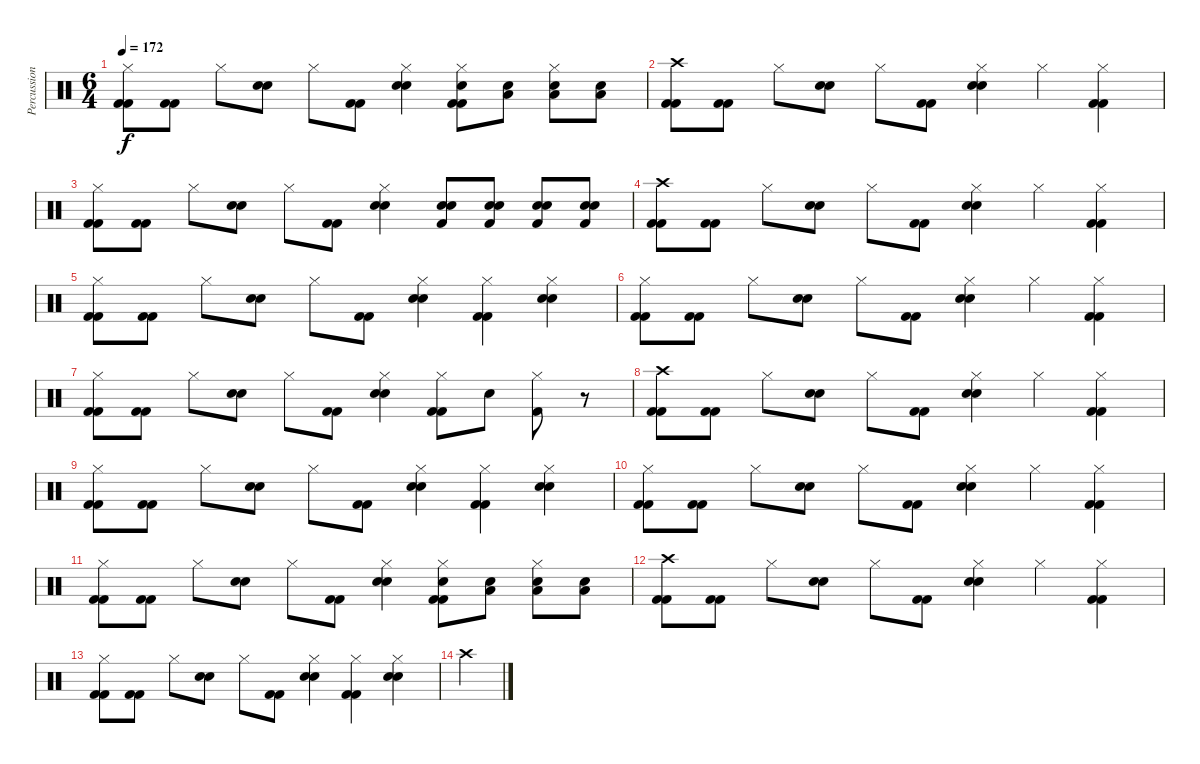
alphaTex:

\track ("Percussion" "Percussion") {instrument percussion}
\staff {score}
\articulation defaults
\ts (6 4)
\tempo 172
\clef neutral
\ks c
("Hi-Hat (closed)" "Kick (hit) 2" "Kick (hit) 2").8{dy f} ("Kick (hit) 2" "Kick (hit) 2").8 "Hi-Hat (closed)".8 ("Electric Snare (hit)" "Electric Snare (hit)").8 "Hi-Hat (closed)".8 ("Kick (hit) 2" "Kick (hit) 2").8 ("Hi-Hat (closed)" "Electric Snare (hit)" "Electric Snare (hit)").4 ("Hi-Hat (closed)" "Electric Snare (hit)" "Kick (hit) 2" "Kick (hit) 2").8 ("Electric Snare (hit)" "Low Tom (hit)").8 ("Hi-Hat (closed)" "Electric Snare (hit)" "Low Tom (hit)").8 ("Electric Snare (hit)" "Low Tom (hit)").8 |
("Crash high (hit)" "Kick (hit) 2" "Kick (hit) 2").8{volume 16} ("Kick (hit) 2" "Kick (hit) 2").8 "Hi-Hat (closed)".8 ("Electric Snare (hit)" "Electric Snare (hit)").8 "Hi-Hat (closed)".8 ("Kick (hit) 2" "Kick (hit) 2").8 ("Hi-Hat (closed)" "Electric Snare (hit)" "Electric Snare (hit)").4 "Hi-Hat (closed)".4 ("Hi-Hat (closed)" "Kick (hit) 2" "Kick (hit) 2").4 |
("Hi-Hat (closed)" "Kick (hit) 2" "Kick (hit) 2").8 ("Kick (hit) 2" "Kick (hit) 2").8 "Hi-Hat (closed)".8 ("Electric Snare (hit)" "Electric Snare (hit)").8 "Hi-Hat (closed)".8 ("Kick (hit) 2" "Kick (hit) 2").8 ("Hi-Hat (closed)" "Electric Snare (hit)" "Electric Snare (hit)").4 ("Electric Snare (hit)" "Electric Snare (hit)" "Kick (hit) 2").8 ("Electric Snare (hit)" "Electric Snare (hit)" "Kick (hit) 2").8 ("Electric Snare (hit)" "Electric Snare (hit)" "Kick (hit) 2").8 ("Electric Snare (hit)" "Electric Snare (hit)" "Kick (hit) 2").8 |
("Crash high (hit)" "Kick (hit) 2" "Kick (hit) 2").8{volume 16} ("Kick (hit) 2" "Kick (hit) 2").8 "Hi-Hat (closed)".8 ("Electric Snare (hit)" "Electric Snare (hit)").8 "Hi-Hat (closed)".8 ("Kick (hit) 2" "Kick (hit) 2").8 ("Hi-Hat (closed)" "Electric Snare (hit)" "Electric Snare (hit)").4 "Hi-Hat (closed)".4 ("Hi-Hat (closed)" "Kick (hit) 2" "Kick (hit) 2").4 |
("Hi-Hat (closed)" "Kick (hit) 2" "Kick (hit) 2").8 ("Kick (hit) 2" "Kick (hit) 2").8 "Hi-Hat (closed)".8 ("Electric Snare (hit)" "Electric Snare (hit)").8 "Hi-Hat (closed)".8 ("Kick (hit) 2" "Kick (hit) 2").8 ("Hi-Hat (closed)" "Electric Snare (hit)" "Electric Snare (hit)").4 ("Hi-Hat (closed)" "Kick (hit) 2" "Kick (hit) 2").4 ("Hi-Hat (closed)" "Electric Snare (hit)" "Electric Snare (hit)").4 |
("Hi-Hat (closed)" "Kick (hit) 2" "Kick (hit) 2").8 ("Kick (hit) 2" "Kick (hit) 2").8 "Hi-Hat (closed)".8 ("Electric Snare (hit)" "Electric Snare (hit)").8 "Hi-Hat (closed)".8 ("Kick (hit) 2" "Kick (hit) 2").8 ("Hi-Hat (closed)" "Electric Snare (hit)" "Electric Snare (hit)").4 "Hi-Hat (closed)".4 ("Hi-Hat (closed)" "Kick (hit) 2" "Kick (hit) 2").4 |
("Hi-Hat (closed)" "Kick (hit) 2" "Kick (hit) 2").8 ("Kick (hit) 2" "Kick (hit) 2").8 "Hi-Hat (closed)".8 ("Electric Snare (hit)" "Electric Snare (hit)").8 "Hi-Hat (closed)".8 ("Kick (hit) 2" "Kick (hit) 2").8 ("Hi-Hat (closed)" "Electric Snare (hit)" "Electric Snare (hit)").4 ("Hi-Hat (closed)" "Kick (hit) 2" "Kick (hit) 2").8 "Electric Snare (hit)".8 ("Hi-Hat (closed)" "Kick (hit) 2").8 r.8 |
("Crash high (hit)" "Kick (hit) 2" "Kick (hit) 2").8 ("Kick (hit) 2" "Kick (hit) 2").8 "Hi-Hat (closed)".8 ("Electric Snare (hit)" "Electric Snare (hit)").8 "Hi-Hat (closed)".8 ("Kick (hit) 2" "Kick (hit) 2").8 ("Hi-Hat (closed)" "Electric Snare (hit)" "Electric Snare (hit)").4 "Hi-Hat (closed)".4 ("Hi-Hat (closed)" "Kick (hit) 2" "Kick (hit) 2").4 |
("Hi-Hat (closed)" "Kick (hit) 2" "Kick (hit) 2").8 ("Kick (hit) 2" "Kick (hit) 2").8 "Hi-Hat (closed)".8 ("Electric Snare (hit)" "Electric Snare (hit)").8 "Hi-Hat (closed)".8 ("Kick (hit) 2" "Kick (hit) 2").8 ("Hi-Hat (closed)" "Electric Snare (hit)" "Electric Snare (hit)").4 ("Hi-Hat (closed)" "Kick (hit) 2" "Kick (hit) 2").4 ("Hi-Hat (closed)" "Electric Snare (hit)" "Electric Snare (hit)").4 |
("Hi-Hat (closed)" "Kick (hit) 2" "Kick (hit) 2").8 ("Kick (hit) 2" "Kick (hit) 2").8 "Hi-Hat (closed)".8 ("Electric Snare (hit)" "Electric Snare (hit)").8 "Hi-Hat (closed)".8 ("Kick (hit) 2" "Kick (hit) 2").8 ("Hi-Hat (closed)" "Electric Snare (hit)" "Electric Snare (hit)").4 "Hi-Hat (closed)".4 ("Hi-Hat (closed)" "Kick (hit) 2" "Kick (hit) 2").4 |
("Hi-Hat (closed)" "Kick (hit) 2" "Kick (hit) 2").8 ("Kick (hit) 2" "Kick (hit) 2").8 "Hi-Hat (closed)".8 ("Electric Snare (hit)" "Electric Snare (hit)").8 "Hi-Hat (closed)".8 ("Kick (hit) 2" "Kick (hit) 2").8 ("Hi-Hat (closed)" "Electric Snare (hit)" "Electric Snare (hit)").4 ("Hi-Hat (closed)" "Electric Snare (hit)" "Kick (hit) 2" "Kick (hit) 2").8 ("Electric Snare (hit)" "Low Tom (hit)").8 ("Hi-Hat (closed)" "Electric Snare (hit)" "Low Tom (hit)").8 ("Electric Snare (hit)" "Low Tom (hit)").8 |
("Crash high (hit)" "Kick (hit) 2" "Kick (hit) 2").8{volume 16} ("Kick (hit) 2" "Kick (hit) 2").8 "Hi-Hat (closed)".8 ("Electric Snare (hit)" "Electric Snare (hit)").8 "Hi-Hat (closed)".8 ("Kick (hit) 2" "Kick (hit) 2").8 ("Hi-Hat (closed)" "Electric Snare (hit)" "Electric Snare (hit)").4 "Hi-Hat (closed)".4 ("Hi-Hat (closed)" "Kick (hit) 2" "Kick (hit) 2").4 |
("Hi-Hat (closed)" "Kick (hit) 2" "Kick (hit) 2").8 ("Kick (hit) 2" "Kick (hit) 2").8 "Hi-Hat (closed)".8 ("Electric Snare (hit)" "Electric Snare (hit)").8 "Hi-Hat (closed)".8 ("Kick (hit) 2" "Kick (hit) 2").8 ("Hi-Hat (closed)" "Electric Snare (hit)" "Electric Snare (hit)").4 ("Hi-Hat (closed)" "Kick (hit) 2" "Kick (hit) 2").4 ("Hi-Hat (closed)" "Electric Snare (hit)" "Electric Snare (hit)").4 |
"Crash high (hit)".4
